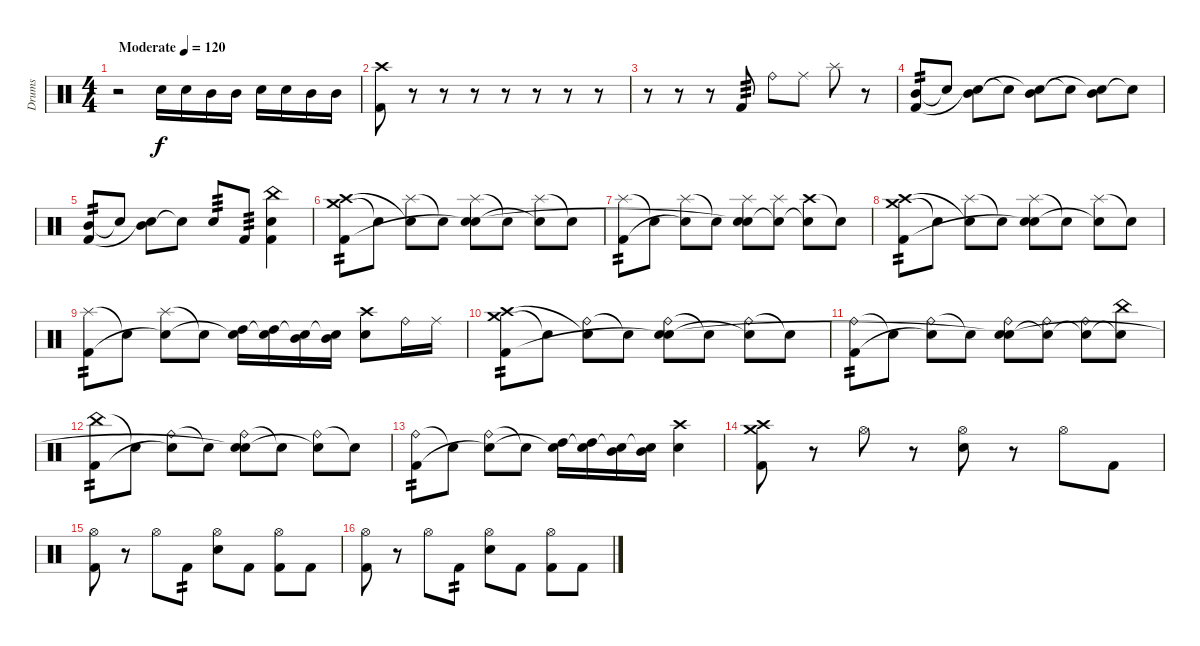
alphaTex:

\track ("Drums" "Drums") {instrument percussion}
\staff {score}
\articulation defaults
\ts (4 4)
\tempo (120 "Moderate")
\clef neutral
\ks c
r.2{dy f} "Electric Snare (hit)".16 "Electric Snare (hit)".16 "Mid Tom (hit)".16 "Mid Tom (hit)".16 "Electric Snare (hit)".16 "Electric Snare (hit)".16 "Mid Tom (hit)".16 "Mid Tom (hit)".16 |
("Crash high (hit)" "Kick (hit) 2").8 r.8{volume 0} r.8 r.8 r.8 r.8 r.8 r.8 |
r.8 r.8 r.8 "Kick (hit) 2".8{tp 3 volume 13} "Ride (bell)".8 "Ride (middle)".8 "Splash (hit)".8 r.8 |
("Mid Tom (hit)" "Kick (hit) 2").8{tp 2} "Snare (hit)"{t}.8 ("Mid Tom (hit)" "Snare (hit)"{t}).8 "Snare (hit)"{t}.8 ("Mid Tom (hit)" "Snare (hit)"{t}).8 "Snare (hit)"{t}.8 ("Mid Tom (hit)" "Snare (hit)"{t}).8 "Snare (hit)"{t}.8 |
("Mid Tom (hit)" "Kick (hit) 2").8{tp 2} "Snare (hit)"{t}.8 ("Mid Tom (hit)" "Snare (hit)"{t}).8 "Snare (hit)"{t}.8 "Electric Snare (hit)".8{tp 3} "Kick (hit) 2".8{tp 3} ("China (hit)" "Electric Snare (hit)" "Kick (hit) 2").4 |
("Crash medium (hit)" "Crash high (hit)" "Kick (hit) 2").8{tp 2} "Snare (hit)"{t}.8 ("Splash (hit)" "Snare (hit)"{t}).8 "Snare (hit)"{t}.8 ("Splash (hit)" "Electric Snare (hit)" "Snare (hit)"{t}).8 "Snare (hit)"{t}.8 ("Splash (hit)" "Snare (hit)"{t}).8 "Snare (hit)"{t}.8 |
("Splash (hit)" "Kick (hit) 2").8{tp 2} "Snare (hit)"{t}.8 ("Splash (hit)" "Snare (hit)"{t}).8 "Snare (hit)"{t}.8 ("Splash (hit)" "Electric Snare (hit)" "Snare (hit)"{t}).8 ("Splash (hit)" "Snare (hit)"{t}).8 ("Crash high (hit)" "Snare (hit)"{t}).8 "Snare (hit)"{t}.8 |
("Crash medium (hit)" "Crash high (hit)" "Kick (hit) 2").8{tp 2} "Snare (hit)"{t}.8 ("Splash (hit)" "Snare (hit)"{t}).8 "Snare (hit)"{t}.8 ("Splash (hit)" "Electric Snare (hit)" "Snare (hit)"{t}).8 "Snare (hit)"{t}.8 ("Splash (hit)" "Snare (hit)"{t}).8 "Snare (hit)"{t}.8 |
("Splash (hit)" "Kick (hit) 2").8{tp 2} "Snare (hit)"{t}.8 ("Splash (hit)" "Snare (hit)"{t}).8 "Snare (hit)"{t}.8 ("High Tom (hit)" "Snare (hit)"{t}).16 ("High Tom (hit)" "Snare (hit)"{t}).16 ("Mid Tom (hit)" "Snare (hit)"{t}).16 ("Mid Tom (hit)" "Snare (hit)"{t}).16 ("Crash high (hit)" "Electric Snare (hit)").8 "Ride (bell)".16 "Ride (middle)".16 |
("Crash medium (hit)" "Crash high (hit)" "Kick (hit) 2").8{tp 2} "Snare (hit)"{t}.8 ("Ride (bell)" "Snare (hit)"{t}).8 "Snare (hit)"{t}.8 ("Ride (bell)" "Electric Snare (hit)" "Snare (hit)"{t}).8 "Snare (hit)"{t}.8 ("Ride (bell)" "Snare (hit)"{t}).8 "Snare (hit)"{t}.8 |
("Ride (bell)" "Kick (hit) 2").8{tp 2} "Snare (hit)"{t}.8 ("Ride (bell)" "Snare (hit)"{t}).8 "Snare (hit)"{t}.8 ("Ride (bell)" "Electric Snare (hit)" "Snare (hit)"{t}).8 ("Ride (bell)" "Snare (hit)"{t}).8 ("Ride (bell)" "Snare (hit)"{t}).8 ("China (hit)" "Snare (hit)"{t}).8 |
("China (hit)" "Kick (hit) 2").8{tp 2} "Snare (hit)"{t}.8 ("Ride (bell)" "Snare (hit)"{t}).8 "Snare (hit)"{t}.8 ("Ride (bell)" "Electric Snare (hit)" "Snare (hit)"{t}).8 "Snare (hit)"{t}.8 ("Ride (bell)" "Snare (hit)"{t}).8 "Snare (hit)"{t}.8 |
("Ride (bell)" "Kick (hit) 2").8{tp 2} "Snare (hit)"{t}.8 ("Ride (bell)" "Snare (hit)"{t}).8 "Snare (hit)"{t}.8 ("High Tom (hit)" "Snare (hit)"{t}).16 ("High Tom (hit)" "Snare (hit)"{t}).16 ("Mid Tom (hit)" "Snare (hit)"{t}).16 ("Mid Tom (hit)" "Snare (hit)"{t}).16 ("Crash high (hit)" "Electric Snare (hit)").4 |
("Crash medium (hit)" "Crash high (hit)" "Kick (hit) 2").8 r.8 "Hi-Hat (open)".8 r.8 ("Hi-Hat (open)" "Electric Snare (hit)").8 r.8 "Hi-Hat (open)".8 "Kick (hit) 2".8 |
("Hi-Hat (open)" "Kick (hit) 2").8 r.8 "Hi-Hat (open)".8 "Kick (hit) 2".8{tp 2} ("Hi-Hat (open)" "Electric Snare (hit)").8 "Kick (hit) 2".8 ("Hi-Hat (open)" "Kick (hit) 2").8 "Kick (hit) 2".8 |
("Hi-Hat (open)" "Kick (hit) 2").8 r.8 "Hi-Hat (open)".8 "Kick (hit) 2".8{tp 2} ("Hi-Hat (open)" "Electric Snare (hit)").8 "Kick (hit) 2".8 ("Hi-Hat (open)" "Kick (hit) 2").8 "Kick (hit) 2".8
